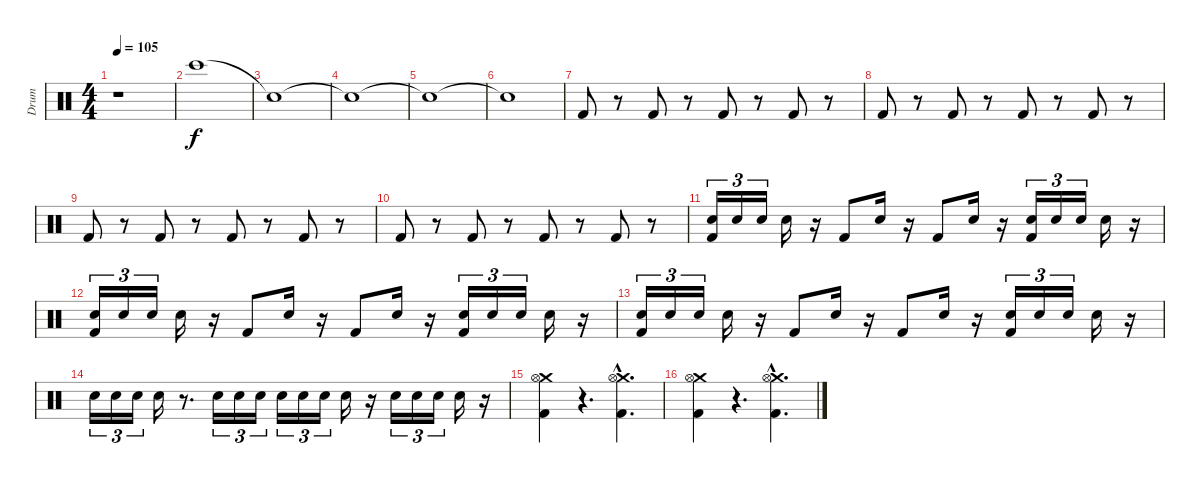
\track ("Drum" "Drum") {instrument percussion}
\staff {score}
\articulation defaults
\ts (4 4)
\tempo 105
\clef neutral
\ks c
r.1{dy f} |
"Bongo High (hit)".1{volume 0} |
"Snare (hit)"{t}.1 |
"Snare (hit)"{t}.1 |
"Snare (hit)"{t}.1 |
"Snare (hit)"{t}.1 |
"Kick (hit) 2".8{volume 7} r.8 "Kick (hit) 2".8 r.8 "Kick (hit) 2".8 r.8 "Kick (hit) 2".8 r.8 |
"Kick (hit) 2".8 r.8 "Kick (hit) 2".8 r.8 "Kick (hit) 2".8 r.8 "Kick (hit) 2".8 r.8 |
"Kick (hit) 2".8 r.8 "Kick (hit) 2".8 r.8 "Kick (hit) 2".8 r.8 "Kick (hit) 2".8 r.8 |
"Kick (hit) 2".8 r.8 "Kick (hit) 2".8 r.8 "Kick (hit) 2".8 r.8 "Kick (hit) 2".8 r.8 |
("Snare (hit) 2" "Kick (hit) 2").16{tu (3 2)} "Snare (hit) 2".16{tu (3 2)} "Snare (hit) 2".16{tu (3 2)} "Snare (hit) 2".16 r.16 "Kick (hit) 2".8 "Snare (hit) 2".16 r.16 "Kick (hit) 2".8 "Snare (hit) 2".16 r.16 ("Snare (hit) 2" "Kick (hit) 2").16{tu (3 2)} "Snare (hit) 2".16{tu (3 2)} "Snare (hit) 2".16{tu (3 2)} "Snare (hit) 2".16 r.16 |
("Snare (hit) 2" "Kick (hit) 2").16{tu (3 2)} "Snare (hit) 2".16{tu (3 2)} "Snare (hit) 2".16{tu (3 2)} "Snare (hit) 2".16 r.16 "Kick (hit) 2".8 "Snare (hit) 2".16 r.16 "Kick (hit) 2".8 "Snare (hit) 2".16 r.16 ("Snare (hit) 2" "Kick (hit) 2").16{tu (3 2)} "Snare (hit) 2".16{tu (3 2)} "Snare (hit) 2".16{tu (3 2)} "Snare (hit) 2".16 r.16 |
("Snare (hit) 2" "Kick (hit) 2").16{tu (3 2) volume 7} "Snare (hit) 2".16{tu (3 2)} "Snare (hit) 2".16{tu (3 2) volume 7} "Snare (hit) 2".16 r.16 "Kick (hit) 2".8{volume 7} "Snare (hit) 2".16{volume 7} r.16 "Kick (hit) 2".8{volume 8} "Snare (hit) 2".16{volume 8} r.16 ("Snare (hit) 2" "Kick (hit) 2").16{tu (3 2) volume 8} "Snare (hit) 2".16{tu (3 2)} "Snare (hit) 2".16{tu (3 2) volume 8} "Snare (hit) 2".16 r.16 |
"Snare (hit) 2".16{tu (3 2) volume 8} "Snare (hit) 2".16{tu (3 2) volume 8} "Snare (hit) 2".16{tu (3 2)} "Snare (hit) 2".16{volume 9} r.8{d} "Snare (hit) 2".16{tu (3 2) volume 9} "Snare (hit) 2".16{tu (3 2)} "Snare (hit) 2".16{tu (3 2) volume 9} "Snare (hit) 2".16{tu (3 2)} "Snare (hit) 2".16{tu (3 2) volume 9} "Snare (hit) 2".16{tu (3 2)} "Snare (hit) 2".16{volume 9} r.16 "Snare (hit) 2".16{tu (3 2) volume 10} "Snare (hit) 2".16{tu (3 2) volume 10} "Snare (hit) 2".16{tu (3 2)} "Snare (hit) 2".16{volume 10} r.16 |
("Crash medium (hit)" "Hi-Hat (open)" "Kick (hit) 2").4{volume 10} r.4{d} ("Crash medium (hit)"{hac} "Hi-Hat (open)"{hac} "Kick (hit) 2"{hac}).4{d} |
("Crash medium (hit)" "Hi-Hat (open)" "Kick (hit) 2").4 r.4{d} ("Crash medium (hit)"{hac} "Hi-Hat (open)"{hac} "Kick (hit) 2"{hac}).4{d}
